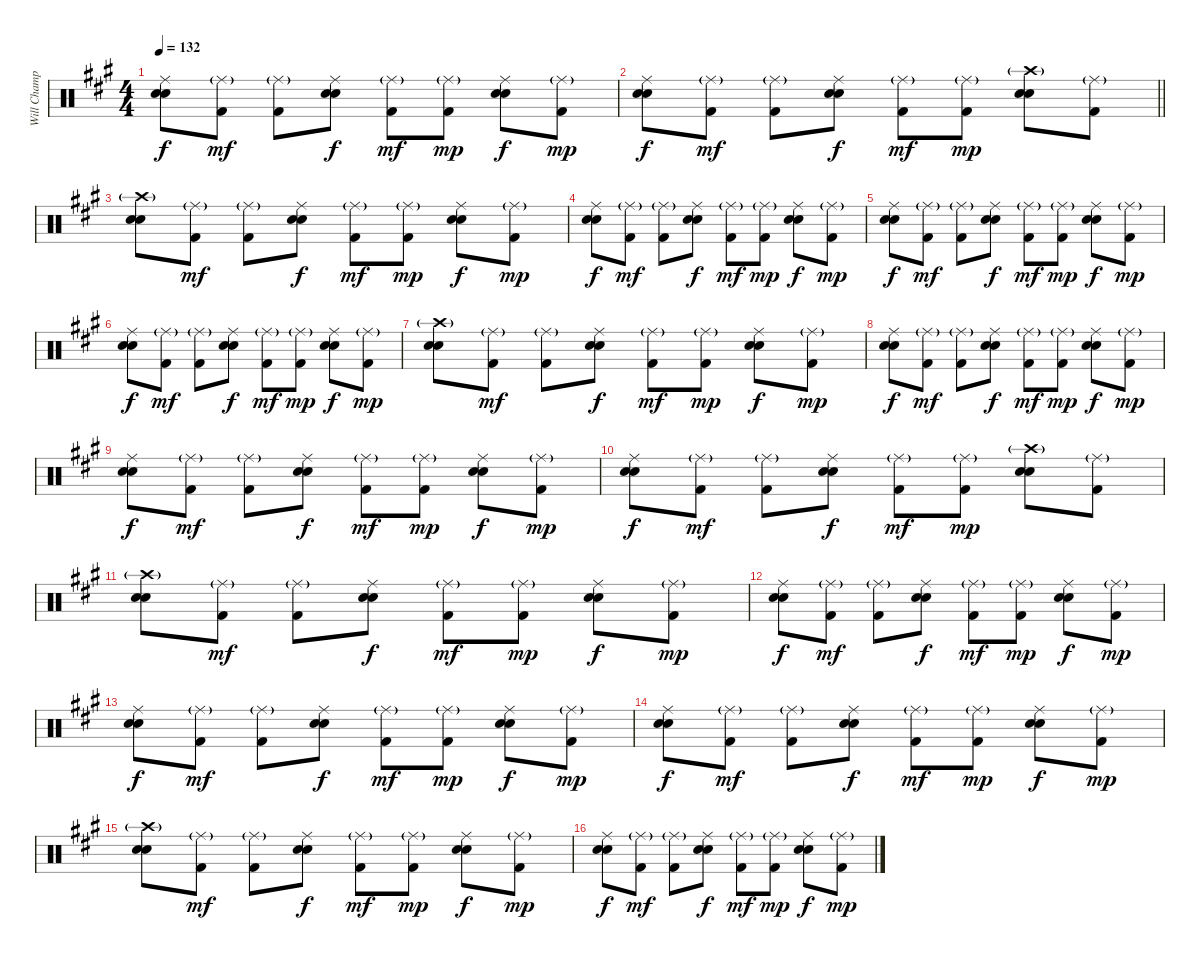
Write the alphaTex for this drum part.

\track ("Will Champion-Drums(percussion)" "Will Champ") {instrument percussion}
\staff {score}
\articulation defaults
\ts (4 4)
\tempo 132
\clef neutral
\ks a
("Ride (middle)" "Electric Snare (hit)" "Snare (hit) 2").8{dy f} ("Ride (middle)"{g} "Kick (hit) 2").8{dy mf} ("Ride (middle)"{g} "Kick (hit) 2").8 ("Ride (middle)" "Electric Snare (hit)" "Snare (hit) 2").8{dy f} ("Ride (middle)"{g} "Kick (hit) 2").8{dy mf} ("Ride (middle)"{g} "Kick (hit) 2").8{dy mp} ("Ride (middle)" "Electric Snare (hit)" "Snare (hit) 2").8{dy f} ("Ride (middle)"{g} "Kick (hit) 2").8{dy mp} |
\barLineRight lightlight
("Ride (middle)" "Electric Snare (hit)" "Snare (hit) 2").8{dy f} ("Ride (middle)"{g} "Kick (hit) 2").8{dy mf} ("Ride (middle)"{g} "Kick (hit) 2").8 ("Ride (middle)" "Electric Snare (hit)" "Snare (hit) 2").8{dy f} ("Ride (middle)"{g} "Kick (hit) 2").8{dy mf} ("Ride (middle)"{g} "Kick (hit) 2").8{dy mp} ("Crash high (hit)"{g} "Electric Snare (hit)" "Snare (hit) 2").8 ("Ride (middle)"{g} "Kick (hit) 2").8 |
("Crash high (hit)"{g} "Electric Snare (hit)" "Snare (hit) 2").8 ("Ride (middle)"{g} "Kick (hit) 2").8{dy mf} ("Ride (middle)"{g} "Kick (hit) 2").8 ("Ride (middle)" "Electric Snare (hit)" "Snare (hit) 2").8{dy f} ("Ride (middle)"{g} "Kick (hit) 2").8{dy mf} ("Ride (middle)"{g} "Kick (hit) 2").8{dy mp} ("Ride (middle)" "Electric Snare (hit)" "Snare (hit) 2").8{dy f} ("Ride (middle)"{g} "Kick (hit) 2").8{dy mp} |
("Ride (middle)" "Electric Snare (hit)" "Snare (hit) 2").8{dy f} ("Ride (middle)"{g} "Kick (hit) 2").8{dy mf} ("Ride (middle)"{g} "Kick (hit) 2").8 ("Ride (middle)" "Electric Snare (hit)" "Snare (hit) 2").8{dy f} ("Ride (middle)"{g} "Kick (hit) 2").8{dy mf} ("Ride (middle)"{g} "Kick (hit) 2").8{dy mp} ("Ride (middle)" "Electric Snare (hit)" "Snare (hit) 2").8{dy f} ("Ride (middle)"{g} "Kick (hit) 2").8{dy mp} |
("Ride (middle)" "Electric Snare (hit)" "Snare (hit) 2").8{dy f} ("Ride (middle)"{g} "Kick (hit) 2").8{dy mf} ("Ride (middle)"{g} "Kick (hit) 2").8 ("Ride (middle)" "Electric Snare (hit)" "Snare (hit) 2").8{dy f} ("Ride (middle)"{g} "Kick (hit) 2").8{dy mf} ("Ride (middle)"{g} "Kick (hit) 2").8{dy mp} ("Ride (middle)" "Electric Snare (hit)" "Snare (hit) 2").8{dy f} ("Ride (middle)"{g} "Kick (hit) 2").8{dy mp} |
("Ride (middle)" "Electric Snare (hit)" "Snare (hit) 2").8{dy f} ("Ride (middle)"{g} "Kick (hit) 2").8{dy mf} ("Ride (middle)"{g} "Kick (hit) 2").8 ("Ride (middle)" "Electric Snare (hit)" "Snare (hit) 2").8{dy f} ("Ride (middle)"{g} "Kick (hit) 2").8{dy mf} ("Ride (middle)"{g} "Kick (hit) 2").8{dy mp} ("Ride (middle)" "Electric Snare (hit)" "Snare (hit) 2").8{dy f} ("Ride (middle)"{g} "Kick (hit) 2").8{dy mp} |
("Crash high (hit)"{g} "Electric Snare (hit)" "Snare (hit) 2").8 ("Ride (middle)"{g} "Kick (hit) 2").8{dy mf} ("Ride (middle)"{g} "Kick (hit) 2").8 ("Ride (middle)" "Electric Snare (hit)" "Snare (hit) 2").8{dy f} ("Ride (middle)"{g} "Kick (hit) 2").8{dy mf} ("Ride (middle)"{g} "Kick (hit) 2").8{dy mp} ("Ride (middle)" "Electric Snare (hit)" "Snare (hit) 2").8{dy f} ("Ride (middle)"{g} "Kick (hit) 2").8{dy mp} |
("Ride (middle)" "Electric Snare (hit)" "Snare (hit) 2").8{dy f} ("Ride (middle)"{g} "Kick (hit) 2").8{dy mf} ("Ride (middle)"{g} "Kick (hit) 2").8 ("Ride (middle)" "Electric Snare (hit)" "Snare (hit) 2").8{dy f} ("Ride (middle)"{g} "Kick (hit) 2").8{dy mf} ("Ride (middle)"{g} "Kick (hit) 2").8{dy mp} ("Ride (middle)" "Electric Snare (hit)" "Snare (hit) 2").8{dy f} ("Ride (middle)"{g} "Kick (hit) 2").8{dy mp} |
("Ride (middle)" "Electric Snare (hit)" "Snare (hit) 2").8{dy f} ("Ride (middle)"{g} "Kick (hit) 2").8{dy mf} ("Ride (middle)"{g} "Kick (hit) 2").8 ("Ride (middle)" "Electric Snare (hit)" "Snare (hit) 2").8{dy f} ("Ride (middle)"{g} "Kick (hit) 2").8{dy mf} ("Ride (middle)"{g} "Kick (hit) 2").8{dy mp} ("Ride (middle)" "Electric Snare (hit)" "Snare (hit) 2").8{dy f} ("Ride (middle)"{g} "Kick (hit) 2").8{dy mp} |
("Ride (middle)" "Electric Snare (hit)" "Snare (hit) 2").8{dy f} ("Ride (middle)"{g} "Kick (hit) 2").8{dy mf} ("Ride (middle)"{g} "Kick (hit) 2").8 ("Ride (middle)" "Electric Snare (hit)" "Snare (hit) 2").8{dy f} ("Ride (middle)"{g} "Kick (hit) 2").8{dy mf} ("Ride (middle)"{g} "Kick (hit) 2").8{dy mp} ("Crash high (hit)"{g} "Electric Snare (hit)" "Snare (hit) 2").8 ("Ride (middle)"{g} "Kick (hit) 2").8 |
("Crash high (hit)"{g} "Electric Snare (hit)" "Snare (hit) 2").8 ("Ride (middle)"{g} "Kick (hit) 2").8{dy mf} ("Ride (middle)"{g} "Kick (hit) 2").8 ("Ride (middle)" "Electric Snare (hit)" "Snare (hit) 2").8{dy f} ("Ride (middle)"{g} "Kick (hit) 2").8{dy mf} ("Ride (middle)"{g} "Kick (hit) 2").8{dy mp} ("Ride (middle)" "Electric Snare (hit)" "Snare (hit) 2").8{dy f} ("Ride (middle)"{g} "Kick (hit) 2").8{dy mp} |
("Ride (middle)" "Electric Snare (hit)" "Snare (hit) 2").8{dy f} ("Ride (middle)"{g} "Kick (hit) 2").8{dy mf} ("Ride (middle)"{g} "Kick (hit) 2").8 ("Ride (middle)" "Electric Snare (hit)" "Snare (hit) 2").8{dy f} ("Ride (middle)"{g} "Kick (hit) 2").8{dy mf} ("Ride (middle)"{g} "Kick (hit) 2").8{dy mp} ("Ride (middle)" "Electric Snare (hit)" "Snare (hit) 2").8{dy f} ("Ride (middle)"{g} "Kick (hit) 2").8{dy mp} |
("Ride (middle)" "Electric Snare (hit)" "Snare (hit) 2").8{dy f} ("Ride (middle)"{g} "Kick (hit) 2").8{dy mf} ("Ride (middle)"{g} "Kick (hit) 2").8 ("Ride (middle)" "Electric Snare (hit)" "Snare (hit) 2").8{dy f} ("Ride (middle)"{g} "Kick (hit) 2").8{dy mf} ("Ride (middle)"{g} "Kick (hit) 2").8{dy mp} ("Ride (middle)" "Electric Snare (hit)" "Snare (hit) 2").8{dy f} ("Ride (middle)"{g} "Kick (hit) 2").8{dy mp} |
("Ride (middle)" "Electric Snare (hit)" "Snare (hit) 2").8{dy f} ("Ride (middle)"{g} "Kick (hit) 2").8{dy mf} ("Ride (middle)"{g} "Kick (hit) 2").8 ("Ride (middle)" "Electric Snare (hit)" "Snare (hit) 2").8{dy f} ("Ride (middle)"{g} "Kick (hit) 2").8{dy mf} ("Ride (middle)"{g} "Kick (hit) 2").8{dy mp} ("Ride (middle)" "Electric Snare (hit)" "Snare (hit) 2").8{dy f} ("Ride (middle)"{g} "Kick (hit) 2").8{dy mp} |
("Crash high (hit)"{g} "Electric Snare (hit)" "Snare (hit) 2").8 ("Ride (middle)"{g} "Kick (hit) 2").8{dy mf} ("Ride (middle)"{g} "Kick (hit) 2").8 ("Ride (middle)" "Electric Snare (hit)" "Snare (hit) 2").8{dy f} ("Ride (middle)"{g} "Kick (hit) 2").8{dy mf} ("Ride (middle)"{g} "Kick (hit) 2").8{dy mp} ("Ride (middle)" "Electric Snare (hit)" "Snare (hit) 2").8{dy f} ("Ride (middle)"{g} "Kick (hit) 2").8{dy mp} |
("Ride (middle)" "Electric Snare (hit)" "Snare (hit) 2").8{dy f} ("Ride (middle)"{g} "Kick (hit) 2").8{dy mf} ("Ride (middle)"{g} "Kick (hit) 2").8 ("Ride (middle)" "Electric Snare (hit)" "Snare (hit) 2").8{dy f} ("Ride (middle)"{g} "Kick (hit) 2").8{dy mf} ("Ride (middle)"{g} "Kick (hit) 2").8{dy mp} ("Ride (middle)" "Electric Snare (hit)" "Snare (hit) 2").8{dy f} ("Ride (middle)"{g} "Kick (hit) 2").8{dy mp}
